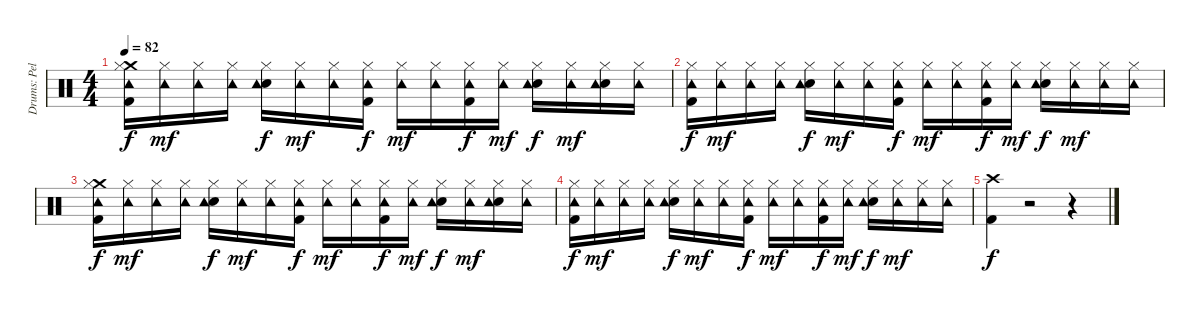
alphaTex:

\track ("Drums: Pelle Alsing" "Drums: Pel") {instrument percussion}
\staff {score}
\articulation defaults
\ts (4 4)
\tempo 82
\clef neutral
\ks c
("Crash medium (hit)" "Hi-Hat (closed)" "Tambourine (hit)" "Kick (hit) 2").16{dy f} ("Hi-Hat (closed)" "Tambourine (hit)").16{dy mf} ("Hi-Hat (closed)" "Tambourine (hit)").16 ("Hi-Hat (closed)" "Tambourine (hit)").16 ("Hi-Hat (closed)" "Snare (hit) 2" "Tambourine (hit)").16{dy f} ("Hi-Hat (closed)" "Tambourine (hit)").16{dy mf} ("Hi-Hat (closed)" "Tambourine (hit)").16 ("Hi-Hat (closed)" "Tambourine (hit)" "Kick (hit) 2").16{dy f} ("Hi-Hat (closed)" "Tambourine (hit)").16{dy mf} ("Hi-Hat (closed)" "Tambourine (hit)").16 ("Hi-Hat (closed)" "Tambourine (hit)" "Kick (hit) 2").16{dy f} ("Hi-Hat (closed)" "Tambourine (hit)").16{dy mf} ("Hi-Hat (closed)" "Snare (hit) 2" "Tambourine (hit)").16{dy f} ("Hi-Hat (closed)" "Tambourine (hit)").16{dy mf} ("Hi-Hat (closed)" "Snare (hit) 2" "Tambourine (hit)").16 ("Hi-Hat (closed)" "Tambourine (hit)").16 |
("Hi-Hat (closed)" "Tambourine (hit)" "Kick (hit) 2").16{dy f} ("Hi-Hat (closed)" "Tambourine (hit)").16{dy mf} ("Hi-Hat (closed)" "Tambourine (hit)").16 ("Hi-Hat (closed)" "Tambourine (hit)").16 ("Hi-Hat (closed)" "Snare (hit) 2" "Tambourine (hit)").16{dy f} ("Hi-Hat (closed)" "Tambourine (hit)").16{dy mf} ("Hi-Hat (closed)" "Tambourine (hit)").16 ("Hi-Hat (closed)" "Tambourine (hit)" "Kick (hit) 2").16{dy f} ("Hi-Hat (closed)" "Tambourine (hit)").16{dy mf} ("Hi-Hat (closed)" "Tambourine (hit)").16 ("Hi-Hat (closed)" "Tambourine (hit)" "Kick (hit) 2").16{dy f} ("Hi-Hat (closed)" "Tambourine (hit)").16{dy mf} ("Hi-Hat (closed)" "Snare (hit) 2" "Tambourine (hit)").16{dy f} ("Hi-Hat (closed)" "Tambourine (hit)").16{dy mf} ("Hi-Hat (closed)" "Tambourine (hit)").16 ("Hi-Hat (closed)" "Tambourine (hit)").16 |
("Crash medium (hit)" "Hi-Hat (closed)" "Tambourine (hit)" "Kick (hit) 2").16{dy f} ("Hi-Hat (closed)" "Tambourine (hit)").16{dy mf} ("Hi-Hat (closed)" "Tambourine (hit)").16 ("Hi-Hat (closed)" "Tambourine (hit)").16 ("Hi-Hat (closed)" "Snare (hit) 2" "Tambourine (hit)").16{dy f} ("Hi-Hat (closed)" "Tambourine (hit)").16{dy mf} ("Hi-Hat (closed)" "Tambourine (hit)").16 ("Hi-Hat (closed)" "Tambourine (hit)" "Kick (hit) 2").16{dy f} ("Hi-Hat (closed)" "Tambourine (hit)").16{dy mf} ("Hi-Hat (closed)" "Tambourine (hit)").16 ("Hi-Hat (closed)" "Tambourine (hit)" "Kick (hit) 2").16{dy f} ("Hi-Hat (closed)" "Tambourine (hit)").16{dy mf} ("Hi-Hat (closed)" "Snare (hit) 2" "Tambourine (hit)").16{dy f} ("Hi-Hat (closed)" "Tambourine (hit)").16{dy mf} ("Hi-Hat (closed)" "Snare (hit) 2" "Tambourine (hit)").16 ("Hi-Hat (closed)" "Tambourine (hit)").16 |
("Hi-Hat (closed)" "Tambourine (hit)" "Kick (hit) 2").16{dy f} ("Hi-Hat (closed)" "Tambourine (hit)").16{dy mf} ("Hi-Hat (closed)" "Tambourine (hit)").16 ("Hi-Hat (closed)" "Tambourine (hit)").16 ("Hi-Hat (closed)" "Snare (hit) 2" "Tambourine (hit)").16{dy f} ("Hi-Hat (closed)" "Tambourine (hit)").16{dy mf} ("Hi-Hat (closed)" "Tambourine (hit)").16 ("Hi-Hat (closed)" "Tambourine (hit)" "Kick (hit) 2").16{dy f} ("Hi-Hat (closed)" "Tambourine (hit)").16{dy mf} ("Hi-Hat (closed)" "Tambourine (hit)").16 ("Hi-Hat (closed)" "Tambourine (hit)" "Kick (hit) 2").16{dy f} ("Hi-Hat (closed)" "Tambourine (hit)").16{dy mf} ("Hi-Hat (closed)" "Snare (hit) 2" "Tambourine (hit)").16{dy f} ("Hi-Hat (closed)" "Tambourine (hit)").16{dy mf} ("Hi-Hat (closed)" "Tambourine (hit)").16 ("Hi-Hat (closed)" "Tambourine (hit)").16 |
("Kick (hit) 2" "Crash high (hit)").4{dy f} r.2 r.4
